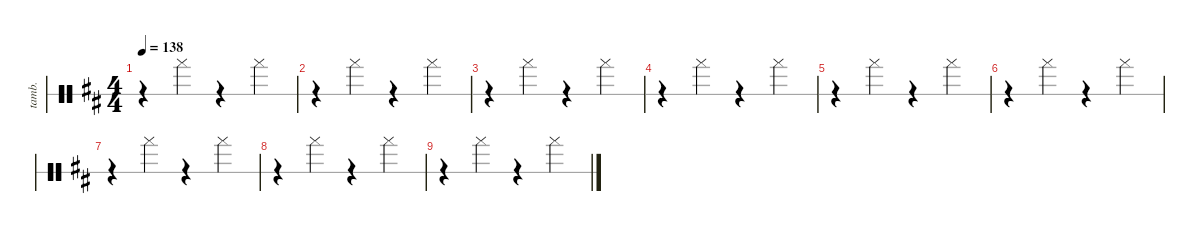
\hideDynamics
\bracketExtendMode groupsimilarinstruments
\otherSystemsTrackNameOrientation horizontal
\track ("Tambourine" "tamb.") {instrument percussion}
\staff {score 1}
\articulation defaults
\ts (4 4)
\tempo 138
\clef neutral
\ks d
r.4{dy mf} "Tambourine (hand)"{acc forcenatural}.4 r.4 "Tambourine (hand)"{acc forcenatural}.4 |
r.4 "Tambourine (hand)"{acc forcenatural}.4 r.4 "Tambourine (hand)"{acc forcenatural}.4 |
r.4 "Tambourine (hand)"{acc forcenatural}.4 r.4 "Tambourine (hand)"{acc forcenatural}.4 |
r.4 "Tambourine (hand)"{acc forcenatural}.4 r.4 "Tambourine (hand)"{acc forcenatural}.4 |
r.4 "Tambourine (hand)"{acc forcenatural}.4 r.4 "Tambourine (hand)"{acc forcenatural}.4 |
r.4 "Tambourine (hand)"{acc forcenatural}.4 r.4 "Tambourine (hand)"{acc forcenatural}.4 |
r.4 "Tambourine (hand)"{acc forcenatural}.4 r.4 "Tambourine (hand)"{acc forcenatural}.4 |
r.4 "Tambourine (hand)"{acc forcenatural}.4 r.4 "Tambourine (hand)"{acc forcenatural}.4 |
r.4 "Tambourine (hand)"{acc forcenatural}.4 r.4 "Tambourine (hand)"{acc forcenatural}.4
